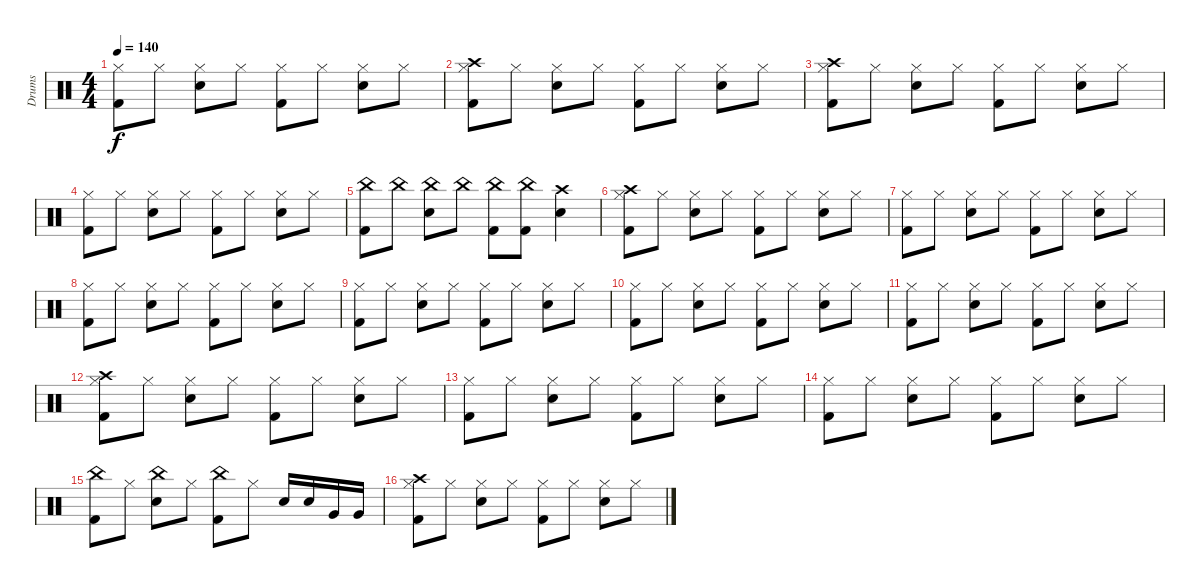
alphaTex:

\track ("Drums" "Drums") {instrument percussion}
\staff {score}
\articulation defaults
\ts (4 4)
\tempo 140
\clef neutral
\ks c
("Hi-Hat (closed)" "Kick (hit) 2").8{dy f} "Hi-Hat (closed)".8 ("Hi-Hat (closed)" "Electric Snare (hit)").8 "Hi-Hat (closed)".8 ("Hi-Hat (closed)" "Kick (hit) 2").8 "Hi-Hat (closed)".8 ("Hi-Hat (closed)" "Electric Snare (hit)").8 "Hi-Hat (closed)".8 |
("Hi-Hat (closed)" "Kick (hit) 2" "Crash high (hit)").8 "Hi-Hat (closed)".8 ("Hi-Hat (closed)" "Electric Snare (hit)").8 "Hi-Hat (closed)".8 ("Hi-Hat (closed)" "Kick (hit) 2").8 "Hi-Hat (closed)".8 ("Hi-Hat (closed)" "Electric Snare (hit)").8 "Hi-Hat (closed)".8 |
("Hi-Hat (closed)" "Kick (hit) 2" "Crash high (hit)").8 "Hi-Hat (closed)".8 ("Hi-Hat (closed)" "Electric Snare (hit)").8 "Hi-Hat (closed)".8 ("Hi-Hat (closed)" "Kick (hit) 2").8 "Hi-Hat (closed)".8 ("Hi-Hat (closed)" "Electric Snare (hit)").8 "Hi-Hat (closed)".8 |
("Hi-Hat (closed)" "Kick (hit) 2").8 "Hi-Hat (closed)".8 ("Hi-Hat (closed)" "Electric Snare (hit)").8 "Hi-Hat (closed)".8 ("Hi-Hat (closed)" "Kick (hit) 2").8 "Hi-Hat (closed)".8 ("Hi-Hat (closed)" "Electric Snare (hit)").8 "Hi-Hat (closed)".8 |
("China (hit)" "Kick (hit) 2").8 "China (hit)".8 ("China (hit)" "Electric Snare (hit)").8 "China (hit)".8 ("China (hit)" "Kick (hit) 2").8 ("China (hit)" "Kick (hit) 2").8 ("Crash high (hit)" "Electric Snare (hit)").4 |
("Hi-Hat (closed)" "Kick (hit) 2" "Crash high (hit)").8 "Hi-Hat (closed)".8 ("Hi-Hat (closed)" "Electric Snare (hit)").8 "Hi-Hat (closed)".8 ("Hi-Hat (closed)" "Kick (hit) 2").8 "Hi-Hat (closed)".8 ("Hi-Hat (closed)" "Electric Snare (hit)").8 "Hi-Hat (closed)".8 |
("Hi-Hat (closed)" "Kick (hit) 2").8 "Hi-Hat (closed)".8 ("Hi-Hat (closed)" "Electric Snare (hit)").8 "Hi-Hat (closed)".8 ("Hi-Hat (closed)" "Kick (hit) 2").8 "Hi-Hat (closed)".8 ("Hi-Hat (closed)" "Electric Snare (hit)").8 "Hi-Hat (closed)".8 |
("Hi-Hat (closed)" "Kick (hit) 2").8 "Hi-Hat (closed)".8 ("Hi-Hat (closed)" "Electric Snare (hit)").8 "Hi-Hat (closed)".8 ("Hi-Hat (closed)" "Kick (hit) 2").8 "Hi-Hat (closed)".8 ("Hi-Hat (closed)" "Electric Snare (hit)").8 "Hi-Hat (closed)".8 |
("Hi-Hat (closed)" "Kick (hit) 2").8 "Hi-Hat (closed)".8 ("Hi-Hat (closed)" "Electric Snare (hit)").8 "Hi-Hat (closed)".8 ("Hi-Hat (closed)" "Kick (hit) 2").8 "Hi-Hat (closed)".8 ("Hi-Hat (closed)" "Electric Snare (hit)").8 "Hi-Hat (closed)".8 |
("Hi-Hat (closed)" "Kick (hit) 2").8 "Hi-Hat (closed)".8 ("Hi-Hat (closed)" "Electric Snare (hit)").8 "Hi-Hat (closed)".8 ("Hi-Hat (closed)" "Kick (hit) 2").8 "Hi-Hat (closed)".8 ("Hi-Hat (closed)" "Electric Snare (hit)").8 "Hi-Hat (closed)".8 |
("Hi-Hat (closed)" "Kick (hit) 2").8 "Hi-Hat (closed)".8 ("Hi-Hat (closed)" "Electric Snare (hit)").8 "Hi-Hat (closed)".8 ("Hi-Hat (closed)" "Kick (hit) 2").8 "Hi-Hat (closed)".8 ("Hi-Hat (closed)" "Electric Snare (hit)").8 "Hi-Hat (closed)".8 |
("Hi-Hat (closed)" "Kick (hit) 2" "Crash high (hit)").8 "Hi-Hat (closed)".8 ("Hi-Hat (closed)" "Electric Snare (hit)").8 "Hi-Hat (closed)".8 ("Hi-Hat (closed)" "Kick (hit) 2").8 "Hi-Hat (closed)".8 ("Hi-Hat (closed)" "Electric Snare (hit)").8 "Hi-Hat (closed)".8 |
("Hi-Hat (closed)" "Kick (hit) 2").8 "Hi-Hat (closed)".8 ("Hi-Hat (closed)" "Electric Snare (hit)").8 "Hi-Hat (closed)".8 ("Hi-Hat (closed)" "Kick (hit) 2").8 "Hi-Hat (closed)".8 ("Hi-Hat (closed)" "Electric Snare (hit)").8 "Hi-Hat (closed)".8 |
("Hi-Hat (closed)" "Kick (hit) 2").8 "Hi-Hat (closed)".8 ("Hi-Hat (closed)" "Electric Snare (hit)").8 "Hi-Hat (closed)".8 ("Hi-Hat (closed)" "Kick (hit) 2").8 "Hi-Hat (closed)".8 ("Hi-Hat (closed)" "Electric Snare (hit)").8 "Hi-Hat (closed)".8 |
("China (hit)" "Kick (hit) 2").8 "Hi-Hat (closed)".8 ("China (hit)" "Electric Snare (hit)").8 "Hi-Hat (closed)".8 ("China (hit)" "Kick (hit) 2").8 "Hi-Hat (closed)".8 "Electric Snare (hit)".16 "Electric Snare (hit)".16 "Very Low Tom (hit)".16 "Very Low Tom (hit)".16 |
("Hi-Hat (closed)" "Kick (hit) 2" "Crash high (hit)").8 "Hi-Hat (closed)".8 ("Hi-Hat (closed)" "Electric Snare (hit)").8 "Hi-Hat (closed)".8 ("Hi-Hat (closed)" "Kick (hit) 2").8 "Hi-Hat (closed)".8 ("Hi-Hat (closed)" "Electric Snare (hit)").8 "Hi-Hat (closed)".8
